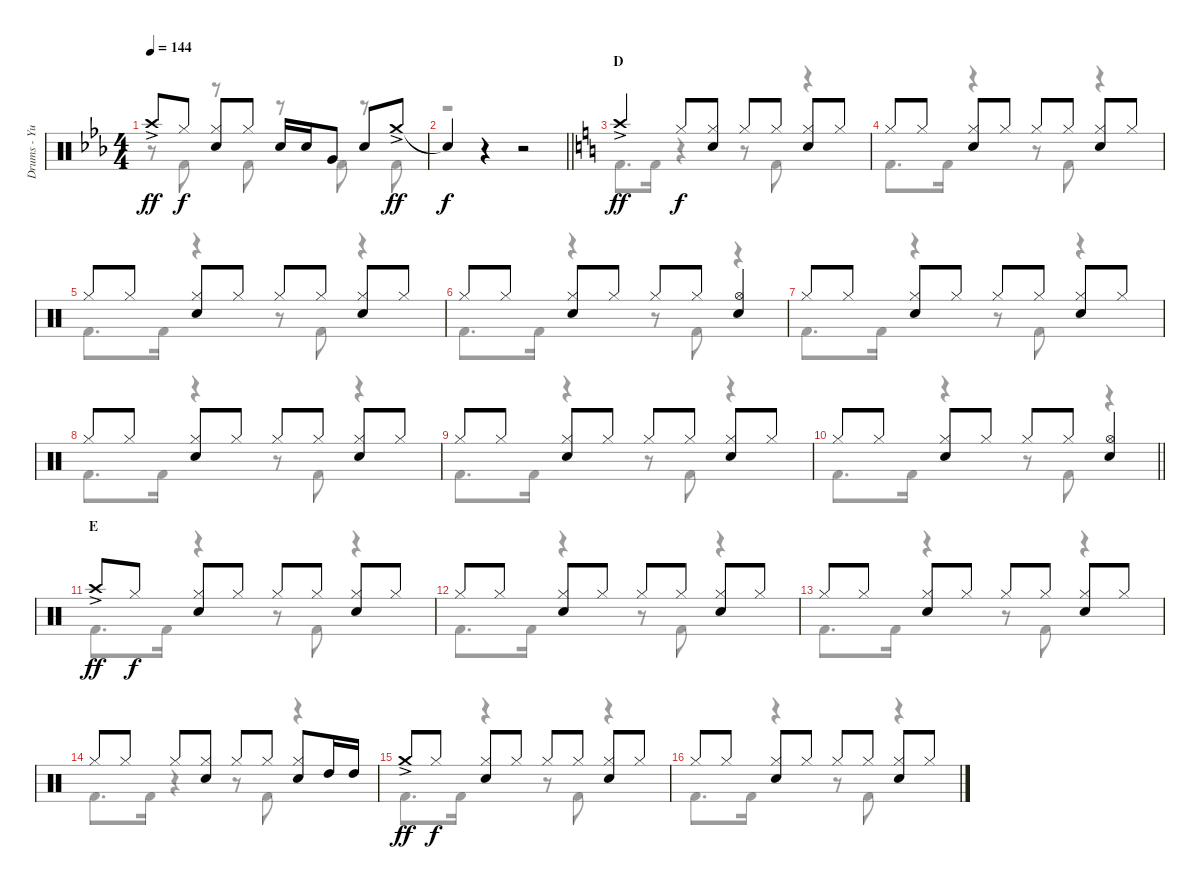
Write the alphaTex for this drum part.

\track ("Drums - Yuuya" "Drums - Yu") {instrument percussion}
\staff {score}
\articulation defaults
\voice
\ts (4 4)
\tempo 144
\clef neutral
\ks eb "Crash high (hit)"{ac}.8{dy ff} "Hi-Hat (closed)".8{dy f}
("Hi-Hat (closed)" "Snare (hit) 2").8 "Hi-Hat (closed)".8 "Snare (hit) 2".16 "Snare (hit) 2".16 "Very Low Tom (hit)".8 "Snare (hit) 2".8 "Crash medium (hit)"{ac}.8{dy ff} |
\barLineRight lightlight "Snare (hit)"{t}.4{dy f}
r.4 r.2 |
\section ("" "D")
\ks c "Crash high (hit)"{ac}.4{dy ff} "Hi-Hat (closed)".8{dy f}
("Hi-Hat (closed)" "Snare (hit) 2").8 "Hi-Hat (closed)".8 "Hi-Hat (closed)".8 ("Hi-Hat (closed)" "Snare (hit) 2").8 "Hi-Hat (closed)".8 |
"Hi-Hat (closed)".8 "Hi-Hat (closed)".8 ("Hi-Hat (closed)" "Snare (hit) 2").8 "Hi-Hat (closed)".8 "Hi-Hat (closed)".8 "Hi-Hat (closed)".8 ("Hi-Hat (closed)" "Snare (hit) 2").8 "Hi-Hat (closed)".8 |
"Hi-Hat (closed)".8 "Hi-Hat (closed)".8 ("Hi-Hat (closed)" "Snare (hit) 2").8 "Hi-Hat (closed)".8 "Hi-Hat (closed)".8 "Hi-Hat (closed)".8 ("Hi-Hat (closed)" "Snare (hit) 2").8 "Hi-Hat (closed)".8 |
"Hi-Hat (closed)".8 "Hi-Hat (closed)".8 ("Hi-Hat (closed)" "Snare (hit) 2").8 "Hi-Hat (closed)".8 "Hi-Hat (closed)".8 "Hi-Hat (closed)".8 ("Hi-Hat (open)" "Snare (hit) 2").4 |
"Hi-Hat (closed)".8 "Hi-Hat (closed)".8 ("Hi-Hat (closed)" "Snare (hit) 2").8 "Hi-Hat (closed)".8 "Hi-Hat (closed)".8 "Hi-Hat (closed)".8 ("Hi-Hat (closed)" "Snare (hit) 2").8 "Hi-Hat (closed)".8 |
"Hi-Hat (closed)".8 "Hi-Hat (closed)".8 ("Hi-Hat (closed)" "Snare (hit) 2").8 "Hi-Hat (closed)".8 "Hi-Hat (closed)".8 "Hi-Hat (closed)".8 ("Hi-Hat (closed)" "Snare (hit) 2").8 "Hi-Hat (closed)".8 |
"Hi-Hat (closed)".8 "Hi-Hat (closed)".8 ("Hi-Hat (closed)" "Snare (hit) 2").8 "Hi-Hat (closed)".8 "Hi-Hat (closed)".8 "Hi-Hat (closed)".8 ("Hi-Hat (closed)" "Snare (hit) 2").8 "Hi-Hat (closed)".8 |
\barLineRight lightlight "Hi-Hat (closed)".8 "Hi-Hat (closed)".8
("Hi-Hat (closed)" "Snare (hit) 2").8 "Hi-Hat (closed)".8 "Hi-Hat (closed)".8 "Hi-Hat (closed)".8 ("Hi-Hat (open)" "Snare (hit) 2").4 |
\section ("" "E")
"Crash high (hit)"{ac}.8{dy ff} "Hi-Hat (closed)".8{dy f} ("Hi-Hat (closed)" "Snare (hit) 2").8 "Hi-Hat (closed)".8 "Hi-Hat (closed)".8 "Hi-Hat (closed)".8 ("Hi-Hat (closed)" "Snare (hit) 2").8 "Hi-Hat (closed)".8 |
"Hi-Hat (closed)".8 "Hi-Hat (closed)".8 ("Hi-Hat (closed)" "Snare (hit) 2").8 "Hi-Hat (closed)".8 "Hi-Hat (closed)".8 "Hi-Hat (closed)".8 ("Hi-Hat (closed)" "Snare (hit) 2").8 "Hi-Hat (closed)".8 |
"Hi-Hat (closed)".8 "Hi-Hat (closed)".8 ("Hi-Hat (closed)" "Snare (hit) 2").8 "Hi-Hat (closed)".8 "Hi-Hat (closed)".8 "Hi-Hat (closed)".8 ("Hi-Hat (closed)" "Snare (hit) 2").8 "Hi-Hat (closed)".8 |
"Hi-Hat (closed)".8 "Hi-Hat (closed)".8 "Hi-Hat (closed)".8 ("Hi-Hat (closed)" "Snare (hit) 2").8 "Hi-Hat (closed)".8 "Hi-Hat (closed)".8 ("Hi-Hat (closed)" "Snare (hit) 2").8 "High Tom (hit)".16 "High Tom (hit)".16 |
"Crash medium (hit)"{ac}.8{dy ff} "Hi-Hat (closed)".8{dy f} ("Hi-Hat (closed)" "Snare (hit) 2").8 "Hi-Hat (closed)".8 "Hi-Hat (closed)".8 "Hi-Hat (closed)".8 ("Hi-Hat (closed)" "Snare (hit) 2").8 "Hi-Hat (closed)".8 |
"Hi-Hat (closed)".8 "Hi-Hat (closed)".8 ("Hi-Hat (closed)" "Snare (hit) 2").8 "Hi-Hat (closed)".8 "Hi-Hat (closed)".8 "Hi-Hat (closed)".8 ("Hi-Hat (closed)" "Snare (hit) 2").8 "Hi-Hat (closed)".8
\voice
\clef neutral
\ottava regular
\simile none
\ks eb
r.8{dy f} "Kick (hit) 2".8 r.8 "Kick (hit) 2".8 r.8 "Kick (hit) 2".8 r.8 "Kick (hit) 2".8 |
\barLineRight lightlight
r.1 |
\ks c "Kick (hit) 2".8{d} "Kick (hit) 2".16
r.4 r.8 "Kick (hit) 2".8 r.4 |
"Kick (hit) 2".8{d} "Kick (hit) 2".16 r.4 r.8 "Kick (hit) 2".8 r.4 |
"Kick (hit) 2".8{d} "Kick (hit) 2".16 r.4 r.8 "Kick (hit) 2".8 r.4 |
"Kick (hit) 2".8{d} "Kick (hit) 2".16 r.4 r.8 "Kick (hit) 2".8 r.4 |
"Kick (hit) 2".8{d} "Kick (hit) 2".16 r.4 r.8 "Kick (hit) 2".8 r.4 |
"Kick (hit) 2".8{d} "Kick (hit) 2".16 r.4 r.8 "Kick (hit) 2".8 r.4 |
"Kick (hit) 2".8{d} "Kick (hit) 2".16 r.4 r.8 "Kick (hit) 2".8 r.4 |
\barLineRight lightlight "Kick (hit) 2".8{d} "Kick (hit) 2".16
r.4 r.8 "Kick (hit) 2".8 r.4 |
"Kick (hit) 2".8{d} "Kick (hit) 2".16 r.4 r.8 "Kick (hit) 2".8 r.4 |
"Kick (hit) 2".8{d} "Kick (hit) 2".16 r.4 r.8 "Kick (hit) 2".8 r.4 |
"Kick (hit) 2".8{d} "Kick (hit) 2".16 r.4 r.8 "Kick (hit) 2".8 r.4 |
"Kick (hit) 2".8{d} "Kick (hit) 2".16 r.4 r.8 "Kick (hit) 2".8 r.4 |
"Kick (hit) 2".8{d} "Kick (hit) 2".16 r.4 r.8 "Kick (hit) 2".8 r.4 |
"Kick (hit) 2".8{d} "Kick (hit) 2".16 r.4 r.8 "Kick (hit) 2".8 r.4
